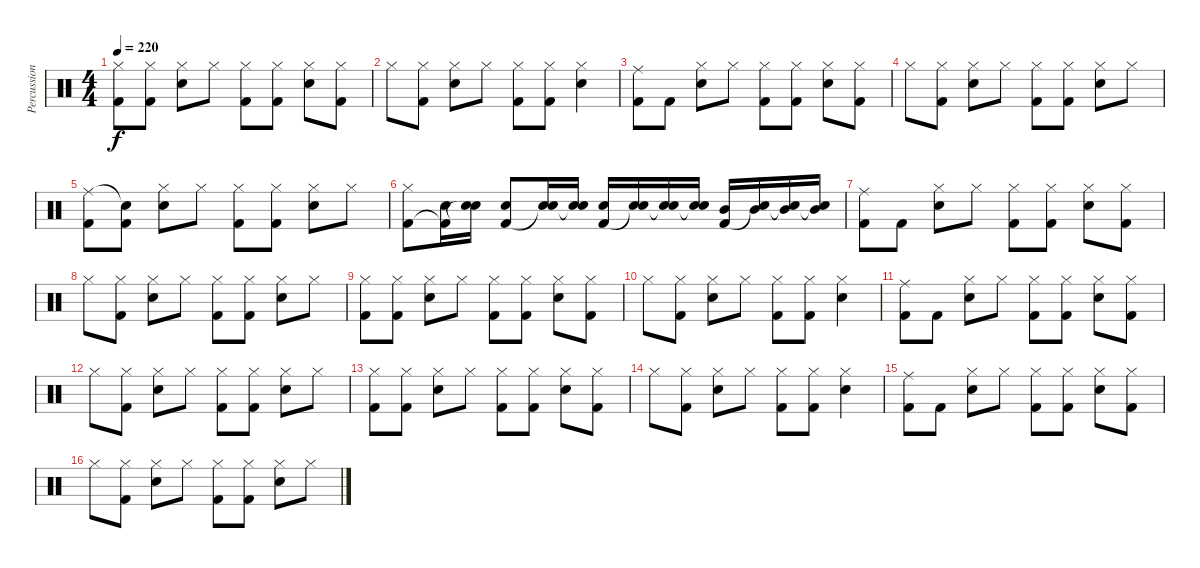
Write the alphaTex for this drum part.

\track ("Percussion" "Percussion") {instrument percussion}
\staff {score}
\articulation defaults
\ts (4 4)
\tempo 220
\clef neutral
\ks c
("Hi-Hat (closed)" "Kick (hit) 2").8{dy f} ("Hi-Hat (closed)" "Kick (hit) 2").8 ("Hi-Hat (closed)" "Electric Snare (hit)").8 "Hi-Hat (closed)".8 ("Hi-Hat (closed)" "Kick (hit) 2").8 ("Hi-Hat (closed)" "Kick (hit) 2").8 ("Hi-Hat (closed)" "Electric Snare (hit)").8 ("Hi-Hat (closed)" "Kick (hit) 2").8 |
"Hi-Hat (closed)".8 ("Hi-Hat (closed)" "Kick (hit) 2").8 ("Hi-Hat (closed)" "Electric Snare (hit)").8 "Hi-Hat (closed)".8 ("Hi-Hat (closed)" "Kick (hit) 2").8 ("Hi-Hat (closed)" "Kick (hit) 2").8 ("Hi-Hat (closed)" "Electric Snare (hit)").4 |
("Ride (middle)" "Kick (hit) 2").8 "Kick (hit) 2".8 ("Hi-Hat (closed)" "Electric Snare (hit)").8 "Hi-Hat (closed)".8 ("Hi-Hat (closed)" "Kick (hit) 2").8 ("Hi-Hat (closed)" "Kick (hit) 2").8 ("Hi-Hat (closed)" "Electric Snare (hit)").8 ("Hi-Hat (closed)" "Kick (hit) 2").8 |
"Hi-Hat (closed)".8 ("Hi-Hat (closed)" "Kick (hit) 2").8 ("Hi-Hat (closed)" "Electric Snare (hit)").8 "Hi-Hat (closed)".8 ("Hi-Hat (closed)" "Kick (hit) 2").8 ("Hi-Hat (closed)" "Kick (hit) 2").8 ("Hi-Hat (closed)" "Electric Snare (hit)").8 "Hi-Hat (closed)".8 |
("Ride (middle)" "Kick (hit) 2").8 ("Snare (hit)"{t} "Kick (hit) 2").8 ("Hi-Hat (closed)" "Electric Snare (hit)").8 "Hi-Hat (closed)".8 ("Hi-Hat (closed)" "Kick (hit) 2").8 ("Hi-Hat (closed)" "Kick (hit) 2").8 ("Hi-Hat (closed)" "Electric Snare (hit)").8 "Hi-Hat (closed)".8 |
("Hi-Hat (closed)" "Kick (hit) 2").8 ("Electric Snare (hit)" "Kick (hit) 2"{t}).16 ("Electric Snare (hit)" "Snare (hit)"{t}).16 ("Electric Snare (hit)" "Kick (hit) 2").8 ("Electric Snare (hit)" "Snare (hit)"{t}).16 ("Electric Snare (hit)" "Snare (hit)"{t}).16 ("Electric Snare (hit)" "Kick (hit) 2").16 ("Electric Snare (hit)" "Snare (hit)"{t}).16 ("Electric Snare (hit)" "Snare (hit)"{t}).16 ("Electric Snare (hit)" "Snare (hit)"{t}).16 ("Mid Tom (hit)" "Kick (hit) 2").16 ("Mid Tom (hit)" "Snare (hit)"{t}).16 ("Mid Tom (hit)" "Snare (hit)"{t}).16 ("Mid Tom (hit)" "Snare (hit)"{t}).16 |
("Ride (middle)" "Kick (hit) 2").8 "Kick (hit) 2".8 ("Hi-Hat (closed)" "Electric Snare (hit)").8 "Hi-Hat (closed)".8 ("Hi-Hat (closed)" "Kick (hit) 2").8 ("Hi-Hat (closed)" "Kick (hit) 2").8 ("Hi-Hat (closed)" "Electric Snare (hit)").8 ("Hi-Hat (closed)" "Kick (hit) 2").8 |
"Hi-Hat (closed)".8 ("Hi-Hat (closed)" "Kick (hit) 2").8 ("Hi-Hat (closed)" "Electric Snare (hit)").8 "Hi-Hat (closed)".8 ("Hi-Hat (closed)" "Kick (hit) 2").8 ("Hi-Hat (closed)" "Kick (hit) 2").8 ("Hi-Hat (closed)" "Electric Snare (hit)").8 "Hi-Hat (closed)".8 |
("Hi-Hat (closed)" "Kick (hit) 2").8 ("Hi-Hat (closed)" "Kick (hit) 2").8 ("Hi-Hat (closed)" "Electric Snare (hit)").8 "Hi-Hat (closed)".8 ("Hi-Hat (closed)" "Kick (hit) 2").8 ("Hi-Hat (closed)" "Kick (hit) 2").8 ("Hi-Hat (closed)" "Electric Snare (hit)").8 ("Hi-Hat (closed)" "Kick (hit) 2").8 |
"Hi-Hat (closed)".8 ("Hi-Hat (closed)" "Kick (hit) 2").8 ("Hi-Hat (closed)" "Electric Snare (hit)").8 "Hi-Hat (closed)".8 ("Hi-Hat (closed)" "Kick (hit) 2").8 ("Hi-Hat (closed)" "Kick (hit) 2").8 ("Hi-Hat (closed)" "Electric Snare (hit)").4 |
("Ride (middle)" "Kick (hit) 2").8 "Kick (hit) 2".8 ("Hi-Hat (closed)" "Electric Snare (hit)").8 "Hi-Hat (closed)".8 ("Hi-Hat (closed)" "Kick (hit) 2").8 ("Hi-Hat (closed)" "Kick (hit) 2").8 ("Hi-Hat (closed)" "Electric Snare (hit)").8 ("Hi-Hat (closed)" "Kick (hit) 2").8 |
"Hi-Hat (closed)".8 ("Hi-Hat (closed)" "Kick (hit) 2").8 ("Hi-Hat (closed)" "Electric Snare (hit)").8 "Hi-Hat (closed)".8 ("Hi-Hat (closed)" "Kick (hit) 2").8 ("Hi-Hat (closed)" "Kick (hit) 2").8 ("Hi-Hat (closed)" "Electric Snare (hit)").8 "Hi-Hat (closed)".8 |
("Hi-Hat (closed)" "Kick (hit) 2").8 ("Hi-Hat (closed)" "Kick (hit) 2").8 ("Hi-Hat (closed)" "Electric Snare (hit)").8 "Hi-Hat (closed)".8 ("Hi-Hat (closed)" "Kick (hit) 2").8 ("Hi-Hat (closed)" "Kick (hit) 2").8 ("Hi-Hat (closed)" "Electric Snare (hit)").8 ("Hi-Hat (closed)" "Kick (hit) 2").8 |
"Hi-Hat (closed)".8 ("Hi-Hat (closed)" "Kick (hit) 2").8 ("Hi-Hat (closed)" "Electric Snare (hit)").8 "Hi-Hat (closed)".8 ("Hi-Hat (closed)" "Kick (hit) 2").8 ("Hi-Hat (closed)" "Kick (hit) 2").8 ("Hi-Hat (closed)" "Electric Snare (hit)").4 |
("Ride (middle)" "Kick (hit) 2").8 "Kick (hit) 2".8 ("Hi-Hat (closed)" "Electric Snare (hit)").8 "Hi-Hat (closed)".8 ("Hi-Hat (closed)" "Kick (hit) 2").8 ("Hi-Hat (closed)" "Kick (hit) 2").8 ("Hi-Hat (closed)" "Electric Snare (hit)").8 ("Hi-Hat (closed)" "Kick (hit) 2").8 |
"Hi-Hat (closed)".8 ("Hi-Hat (closed)" "Kick (hit) 2").8 ("Hi-Hat (closed)" "Electric Snare (hit)").8 "Hi-Hat (closed)".8 ("Hi-Hat (closed)" "Kick (hit) 2").8 ("Hi-Hat (closed)" "Kick (hit) 2").8 ("Hi-Hat (closed)" "Electric Snare (hit)").8 "Hi-Hat (closed)".8
